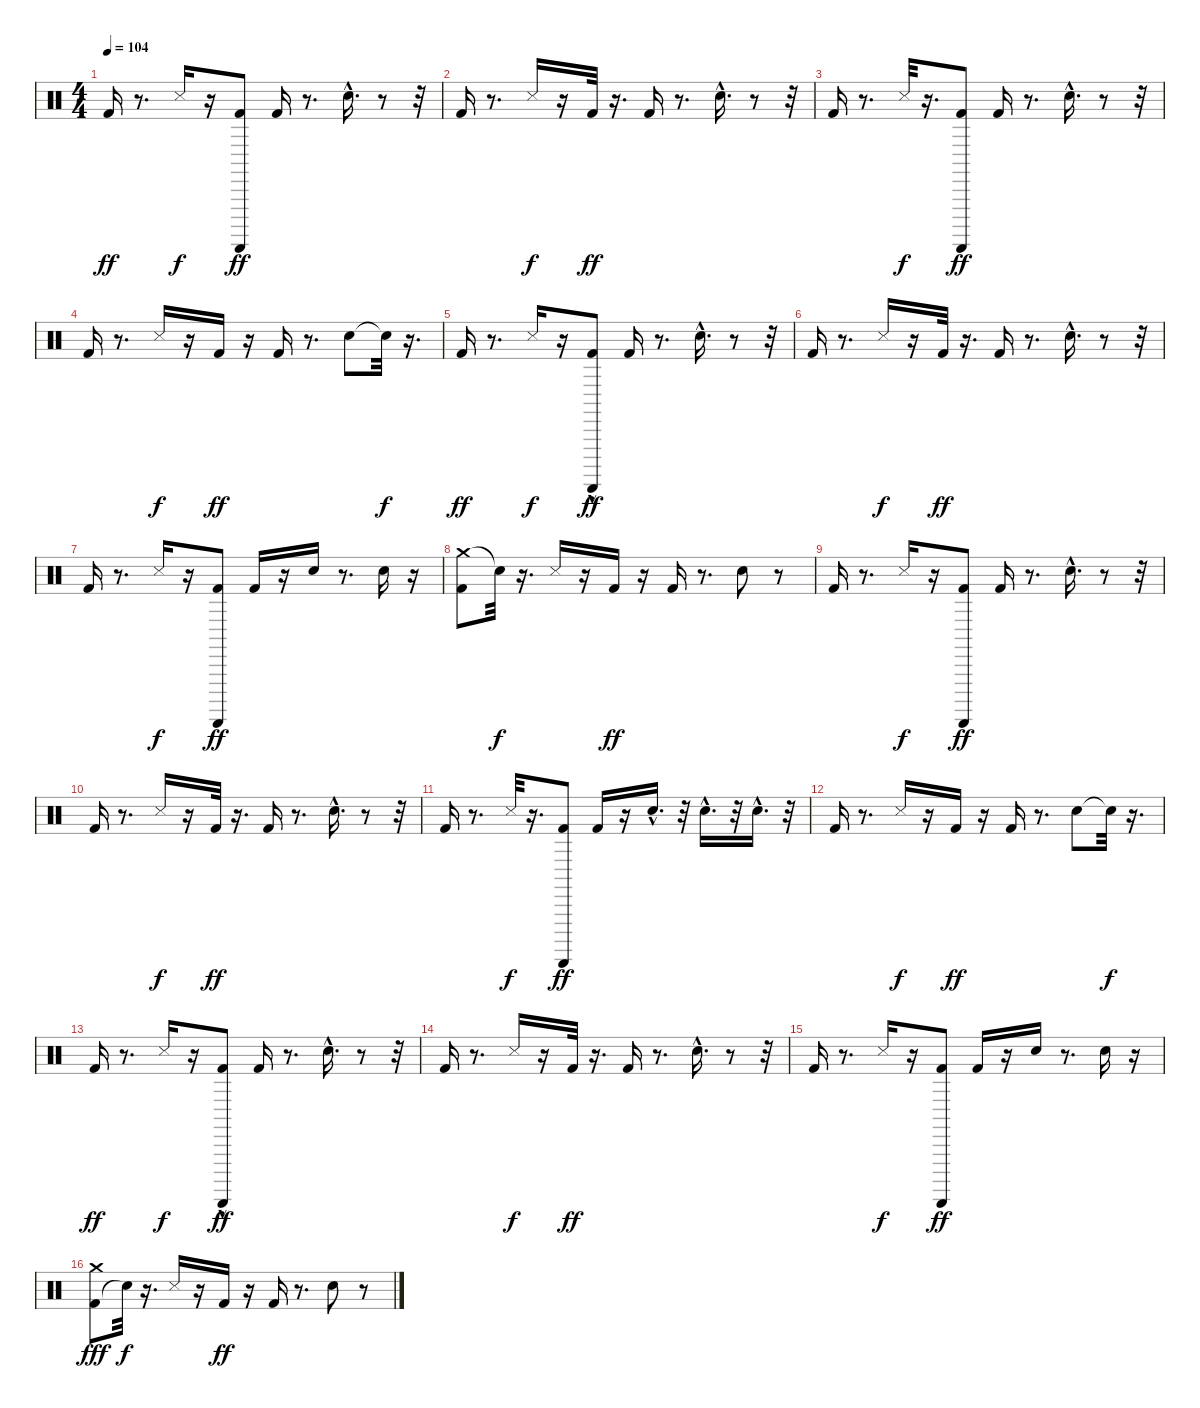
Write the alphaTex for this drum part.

\track "" {instrument percussion}
\staff {score}
\articulation defaults
\ts (4 4)
\tempo 104
\clef neutral
\ks c "Kick (hit) 2".16{dy ff}
r.8{d} "Snare (side stick) 3".16{dy f} r.16 ("Kick (hit) 2" "Guiro (scrap-return)").8{dy ff} "Kick (hit) 2".16 r.8{d} "Snare (hit) 2"{hac}.16{d} r.8 r.32 |
"Kick (hit) 2".16 r.8{d} "Snare (side stick) 3".16{dy f} r.16 "Kick (hit) 2".32{dy ff} r.16{d} "Kick (hit) 2".16 r.8{d} "Snare (hit) 2"{hac}.16{d} r.8 r.32 |
"Kick (hit) 2".16 r.8{d} "Snare (side stick) 3".32{dy f} r.16{d} ("Kick (hit) 2" "Guiro (scrap-return)").8{dy ff} "Kick (hit) 2".16 r.8{d} "Snare (hit) 2"{hac}.16{d} r.8 r.32 |
"Kick (hit) 2".16 r.8{d} "Snare (side stick) 3".16{dy f} r.16 "Kick (hit) 2".16{dy ff} r.16 "Kick (hit) 2".16 r.8{d} "Snare (hit) 2".8 "Snare (hit)"{t}.32{dy f} r.16{d} |
"Kick (hit) 2".16{dy ff} r.8{d} "Snare (side stick) 3".16{dy f} r.16 ("Guiro (scrap-return)"{hac} "Kick (hit) 2").8{dy ff} "Kick (hit) 2".16 r.8{d} "Snare (hit) 2"{hac}.16{d} r.8 r.32 |
"Kick (hit) 2".16 r.8{d} "Snare (side stick) 3".16{dy f} r.16 "Kick (hit) 2".32{dy ff} r.16{d} "Kick (hit) 2".16 r.8{d} "Snare (hit) 2"{hac}.16{d} r.8 r.32 |
"Kick (hit) 2".16 r.8{d} "Snare (side stick) 3".16{dy f} r.16 ("Guiro (scrap-return)" "Kick (hit) 2").8{dy ff} "Kick (hit) 2".16 r.16 "Snare (hit) 2".16 r.8{d} "Snare (hit) 2".16 r.16 |
("Crash medium (hit)" "Kick (hit) 2").8 "Snare (hit)"{t}.32{dy f} r.16{d} "Snare (side stick) 3".16 r.16 "Kick (hit) 2".16{dy ff} r.16 "Kick (hit) 2".16 r.8{d} "Snare (hit) 2".8 r.8 |
"Kick (hit) 2".16 r.8{d} "Snare (side stick) 3".16{dy f} r.16 ("Guiro (scrap-return)" "Kick (hit) 2").8{dy ff} "Kick (hit) 2".16 r.8{d} "Snare (hit) 2"{hac}.16{d} r.8 r.32 |
"Kick (hit) 2".16 r.8{d} "Snare (side stick) 3".16{dy f} r.16 "Kick (hit) 2".32{dy ff} r.16{d} "Kick (hit) 2".16 r.8{d} "Snare (hit) 2"{hac}.16{d} r.8 r.32 |
"Kick (hit) 2".16 r.8{d} "Snare (side stick) 3".32{dy f} r.16{d} ("Kick (hit) 2" "Guiro (scrap-return)").8{dy ff} "Kick (hit) 2".16 r.16 "Snare (hit) 2"{hac}.16{d} r.32 "Snare (hit) 2"{hac}.16{d} r.32 "Snare (hit) 2"{hac}.16{d} r.32 |
"Kick (hit) 2".16 r.8{d} "Snare (side stick) 3".16{dy f} r.16 "Kick (hit) 2".16{dy ff} r.16 "Kick (hit) 2".16 r.8{d} "Snare (hit) 2".8 "Snare (hit)"{t}.32{dy f} r.16{d} |
"Kick (hit) 2".16{dy ff} r.8{d} "Snare (side stick) 3".16{dy f} r.16 ("Kick (hit) 2" "Guiro (scrap-return)"{hac}).8{dy ff} "Kick (hit) 2".16 r.8{d} "Snare (hit) 2"{hac}.16{d} r.8 r.32 |
"Kick (hit) 2".16 r.8{d} "Snare (side stick) 3".16{dy f} r.16 "Kick (hit) 2".32{dy ff} r.16{d} "Kick (hit) 2".16 r.8{d} "Snare (hit) 2"{hac}.16{d} r.8 r.32 |
"Kick (hit) 2".16 r.8{d} "Snare (side stick) 3".16{dy f} r.16 ("Kick (hit) 2" "Guiro (scrap-return)").8{dy ff} "Kick (hit) 2".16 r.16 "Snare (hit) 2".16 r.8{d} "Snare (hit) 2".16 r.16 |
("Kick (hit) 2" "Crash medium (hit)").8{dy fff} "Snare (hit)"{t}.32{dy f} r.16{d} "Snare (side stick) 3".16 r.16 "Kick (hit) 2".16{dy ff} r.16 "Kick (hit) 2".16 r.8{d} "Snare (hit) 2".8 r.8
